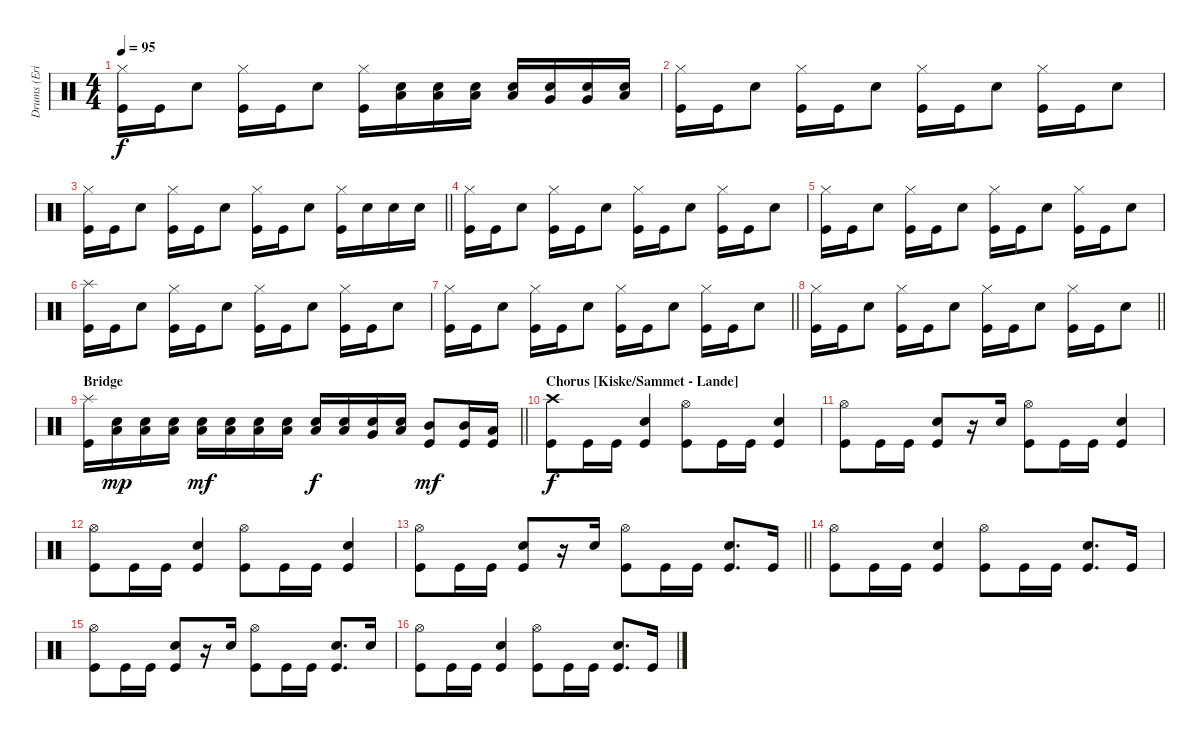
\track ("Drums (Eric Singer)" "Drums (Eri") {instrument percussion}
\staff {score}
\articulation defaults
\ts (4 4)
\tempo 95
\clef neutral
\ks c
("Hi-Hat (closed)" "Kick (hit)").16{dy f} "Kick (hit)".16 "Snare (hit) 2".8 ("Hi-Hat (closed)" "Kick (hit)").16 "Kick (hit)".16 "Snare (hit) 2".8 ("Hi-Hat (closed)" "Kick (hit)").16 ("Low Tom (hit)" "Snare (hit) 2").16 ("Low Tom (hit)" "Snare (hit) 2").16 ("Low Tom (hit)" "Snare (hit) 2").16 ("Low Tom (hit)" "Snare (hit) 2").16 ("Very Low Tom (hit)" "Snare (hit) 2").16 ("Very Low Tom (hit)" "Snare (hit) 2").16 ("Low Floor Tom (hit)" "Snare (hit) 2").16 |
("Hi-Hat (closed)" "Kick (hit)").16 "Kick (hit)".16 "Snare (hit) 2".8 ("Hi-Hat (closed)" "Kick (hit)").16 "Kick (hit)".16 "Snare (hit) 2".8 ("Hi-Hat (closed)" "Kick (hit)").16 "Kick (hit)".16 "Snare (hit) 2".8 ("Hi-Hat (closed)" "Kick (hit)").16 "Kick (hit)".16 "Snare (hit) 2".8 |
\barLineRight lightlight
("Hi-Hat (closed)" "Kick (hit)").16 "Kick (hit)".16 "Snare (hit) 2".8 ("Hi-Hat (closed)" "Kick (hit)").16 "Kick (hit)".16 "Snare (hit) 2".8 ("Hi-Hat (closed)" "Kick (hit)").16 "Kick (hit)".16 "Snare (hit) 2".8 ("Hi-Hat (closed)" "Kick (hit)").16 "Snare (hit) 2".16 "Snare (hit) 2".16 "Snare (hit) 2".16 |
("Hi-Hat (closed)" "Kick (hit)").16 "Kick (hit)".16 "Snare (hit) 2".8 ("Hi-Hat (closed)" "Kick (hit)").16 "Kick (hit)".16 "Snare (hit) 2".8 ("Hi-Hat (closed)" "Kick (hit)").16 "Kick (hit)".16 "Snare (hit) 2".8 ("Hi-Hat (closed)" "Kick (hit)").16 "Kick (hit)".16 "Snare (hit) 2".8 |
("Hi-Hat (closed)" "Kick (hit)").16 "Kick (hit)".16 "Snare (hit) 2".8 ("Hi-Hat (closed)" "Kick (hit)").16 "Kick (hit)".16 "Snare (hit) 2".8 ("Hi-Hat (closed)" "Kick (hit)").16 "Kick (hit)".16 "Snare (hit) 2".8 ("Hi-Hat (closed)" "Kick (hit)").16 "Kick (hit)".16 "Snare (hit) 2".8 |
("Splash (hit)" "Kick (hit)").16 "Kick (hit)".16 "Snare (hit) 2".8 ("Hi-Hat (closed)" "Kick (hit)").16 "Kick (hit)".16 "Snare (hit) 2".8 ("Hi-Hat (closed)" "Kick (hit)").16 "Kick (hit)".16 "Snare (hit) 2".8 ("Hi-Hat (closed)" "Kick (hit)").16 "Kick (hit)".16 "Snare (hit) 2".8 |
\barLineRight lightlight
("Hi-Hat (closed)" "Kick (hit)").16 "Kick (hit)".16 "Snare (hit) 2".8 ("Hi-Hat (closed)" "Kick (hit)").16 "Kick (hit)".16 "Snare (hit) 2".8 ("Hi-Hat (closed)" "Kick (hit)").16 "Kick (hit)".16 "Snare (hit) 2".8 ("Hi-Hat (closed)" "Kick (hit)").16 "Kick (hit)".16 "Snare (hit) 2".8 |
\barLineRight lightlight
("Hi-Hat (closed)" "Kick (hit)").16 "Kick (hit)".16 "Snare (hit) 2".8 ("Hi-Hat (closed)" "Kick (hit)").16 "Kick (hit)".16 "Snare (hit) 2".8 ("Hi-Hat (closed)" "Kick (hit)").16 "Kick (hit)".16 "Snare (hit) 2".8 ("Hi-Hat (closed)" "Kick (hit)").16 "Kick (hit)".16 "Snare (hit) 2".8 |
\section ("" "Bridge")
\barLineRight lightlight
("Splash (hit)" "Kick (hit)").16 ("Snare (hit) 2" "Low Tom (hit)").16{dy mp} ("Snare (hit) 2" "Low Tom (hit)").16 ("Snare (hit) 2" "Low Tom (hit)").16 ("Snare (hit) 2" "Low Tom (hit)").16{dy mf} ("Snare (hit) 2" "Low Tom (hit)").16 ("Snare (hit) 2" "Low Tom (hit)").16 ("Snare (hit) 2" "Low Tom (hit)").16 ("Snare (hit) 2" "Low Tom (hit)").16{dy f} ("Snare (hit) 2" "Low Tom (hit)").16 ("Snare (hit) 2" "Very Low Tom (hit)").16 ("Snare (hit) 2" "Low Floor Tom (hit)").16 ("Mid Tom (hit)" "Kick (hit)").8{dy mf} ("Mid Tom (hit)" "Kick (hit)").16 ("Low Tom (hit)" "Kick (hit)").16 |
\section ("" "Chorus [Kiske/Sammet - Lande]")
("Crash high (hit)" "Kick (hit)").8{dy f} "Kick (hit)".16 "Kick (hit)".16 ("Snare (hit) 2" "Kick (hit)").4 ("Kick (hit)" "Hi-Hat (open)").8 "Kick (hit)".16 "Kick (hit)".16 ("Snare (hit) 2" "Kick (hit)").4 |
("Kick (hit)" "Hi-Hat (open)").8 "Kick (hit)".16 "Kick (hit)".16 ("Snare (hit) 2" "Kick (hit)").8 r.16 "Snare (hit) 2".16 ("Kick (hit)" "Hi-Hat (open)").8 "Kick (hit)".16 "Kick (hit)".16 ("Snare (hit) 2" "Kick (hit)").4 |
("Kick (hit)" "Hi-Hat (open)").8 "Kick (hit)".16 "Kick (hit)".16 ("Snare (hit) 2" "Kick (hit)").4 ("Kick (hit)" "Hi-Hat (open)").8 "Kick (hit)".16 "Kick (hit)".16 ("Snare (hit) 2" "Kick (hit)").4 |
\barLineRight lightlight
("Kick (hit)" "Hi-Hat (open)").8 "Kick (hit)".16 "Kick (hit)".16 ("Snare (hit) 2" "Kick (hit)").8 r.16 "Snare (hit) 2".16 ("Kick (hit)" "Hi-Hat (open)").8 "Kick (hit)".16 "Kick (hit)".16 ("Snare (hit) 2" "Kick (hit)").8{d} "Kick (hit)".16 |
("Kick (hit)" "Hi-Hat (open)").8 "Kick (hit)".16 "Kick (hit)".16 ("Snare (hit) 2" "Kick (hit)").4 ("Kick (hit)" "Hi-Hat (open)").8 "Kick (hit)".16 "Kick (hit)".16 ("Snare (hit) 2" "Kick (hit)").8{d} "Kick (hit)".16 |
("Kick (hit)" "Hi-Hat (open)").8 "Kick (hit)".16 "Kick (hit)".16 ("Snare (hit) 2" "Kick (hit)").8 r.16 "Snare (hit) 2".16 ("Kick (hit)" "Hi-Hat (open)").8 "Kick (hit)".16 "Kick (hit)".16 ("Snare (hit) 2" "Kick (hit)").8{d} "Snare (hit) 2".16 |
("Kick (hit)" "Hi-Hat (open)").8 "Kick (hit)".16 "Kick (hit)".16 ("Snare (hit) 2" "Kick (hit)").4 ("Kick (hit)" "Hi-Hat (open)").8 "Kick (hit)".16 "Kick (hit)".16 ("Snare (hit) 2" "Kick (hit)").8{d} "Kick (hit)".16
